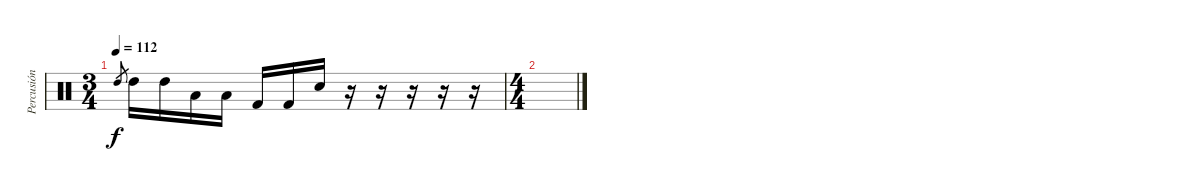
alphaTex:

\track ("Percusión" "Percusión") {instrument percussion}
\staff {score}
\articulation defaults
\ts (3 4)
\tempo 112
\clef neutral
\ks c "High Tom (hit)".8{gr dy f} "High Tom (hit)".16 "High Tom (hit)".16 "Low Tom (hit)".16 "Low Tom (hit)".16 "Kick (hit) 2".16 "Kick (hit) 2".16 "Electric Snare (hit)".16
r.16 r.16 r.16 r.16 r.16 |
\ts (4 4)
